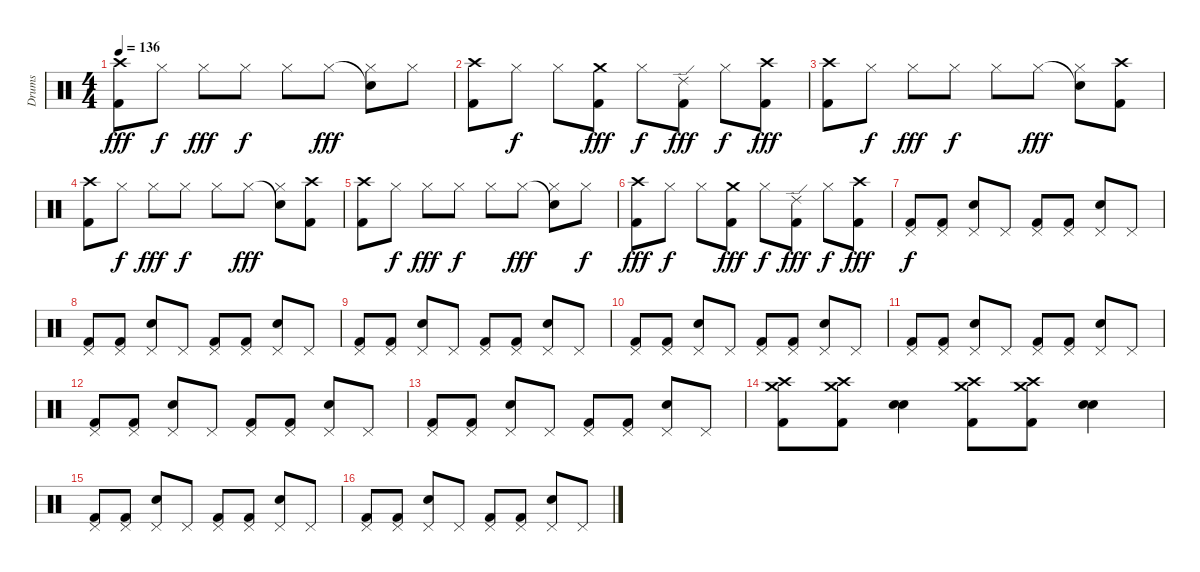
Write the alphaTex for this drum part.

\track ("Drums" "Drums") {instrument percussion}
\staff {score}
\articulation defaults
\ts (4 4)
\tempo 136
\clef neutral
\ks c
("Crash high (hit)" "Kick (hit) 2").8{dy fff} "Hi-Hat (closed)".8{dy f} "Hi-Hat (closed)".8{dy fff} "Hi-Hat (closed)".8{dy f} "Hi-Hat (closed)".8 "Hi-Hat (closed)".8{dy fff} ("Snare (hit)"{t} "Hi-Hat (closed)").8 "Hi-Hat (closed)".8 |
("Crash high (hit)" "Kick (hit) 2").8 "Hi-Hat (closed)".8{dy f} "Hi-Hat (closed)".8 ("Crash medium (hit)" "Kick (hit) 2").8{dy fff} "Hi-Hat (closed)".8{dy f} ("Ride (edge) 2" "Kick (hit) 2").8{dy fff} "Hi-Hat (closed)".8{dy f} ("Crash high (hit)" "Kick (hit) 2").8{dy fff} |
("Crash high (hit)" "Kick (hit) 2").8 "Hi-Hat (closed)".8{dy f} "Hi-Hat (closed)".8{dy fff} "Hi-Hat (closed)".8{dy f} "Hi-Hat (closed)".8 "Hi-Hat (closed)".8{dy fff} ("Snare (hit)"{t} "Hi-Hat (closed)").8 ("Crash high (hit)" "Kick (hit) 2").8 |
("Crash high (hit)" "Kick (hit) 2").8 "Hi-Hat (closed)".8{dy f} "Hi-Hat (closed)".8{dy fff} "Hi-Hat (closed)".8{dy f} "Hi-Hat (closed)".8 "Hi-Hat (closed)".8{dy fff} ("Snare (hit)"{t} "Hi-Hat (closed)").8 ("Crash high (hit)" "Kick (hit) 2").8 |
("Crash high (hit)" "Kick (hit) 2").8 "Hi-Hat (closed)".8{dy f} "Hi-Hat (closed)".8{dy fff} "Hi-Hat (closed)".8{dy f} "Hi-Hat (closed)".8 "Hi-Hat (closed)".8{dy fff} ("Snare (hit)"{t} "Hi-Hat (closed)").8 "Hi-Hat (closed)".8{dy f} |
("Crash high (hit)" "Kick (hit) 2").8{dy fff} "Hi-Hat (closed)".8{dy f} "Hi-Hat (closed)".8 ("Crash medium (hit)" "Kick (hit) 2").8{dy fff} "Hi-Hat (closed)".8{dy f} ("Ride (edge) 2" "Kick (hit) 2").8{dy fff} "Hi-Hat (closed)".8{dy f} ("Crash high (hit)" "Kick (hit) 2").8{dy fff} |
("Pedal Hi-Hat (hit)" "Kick (hit) 2").8{dy f} ("Pedal Hi-Hat (hit)" "Kick (hit) 2").8 ("Pedal Hi-Hat (hit)" "Electric Snare (hit)").8 "Pedal Hi-Hat (hit)".8 ("Pedal Hi-Hat (hit)" "Kick (hit) 2").8 ("Pedal Hi-Hat (hit)" "Kick (hit) 2").8 ("Pedal Hi-Hat (hit)" "Electric Snare (hit)").8 "Pedal Hi-Hat (hit)".8 |
("Pedal Hi-Hat (hit)" "Kick (hit) 2").8 ("Pedal Hi-Hat (hit)" "Kick (hit) 2").8 ("Pedal Hi-Hat (hit)" "Electric Snare (hit)").8 "Pedal Hi-Hat (hit)".8 ("Pedal Hi-Hat (hit)" "Kick (hit) 2").8 ("Pedal Hi-Hat (hit)" "Kick (hit) 2").8 ("Pedal Hi-Hat (hit)" "Electric Snare (hit)").8 "Pedal Hi-Hat (hit)".8 |
("Pedal Hi-Hat (hit)" "Kick (hit) 2").8 ("Pedal Hi-Hat (hit)" "Kick (hit) 2").8 ("Pedal Hi-Hat (hit)" "Electric Snare (hit)").8 "Pedal Hi-Hat (hit)".8 ("Pedal Hi-Hat (hit)" "Kick (hit) 2").8 ("Pedal Hi-Hat (hit)" "Kick (hit) 2").8 ("Pedal Hi-Hat (hit)" "Electric Snare (hit)").8 "Pedal Hi-Hat (hit)".8 |
("Pedal Hi-Hat (hit)" "Kick (hit) 2").8 ("Pedal Hi-Hat (hit)" "Kick (hit) 2").8 ("Pedal Hi-Hat (hit)" "Electric Snare (hit)").8 "Pedal Hi-Hat (hit)".8 ("Pedal Hi-Hat (hit)" "Kick (hit) 2").8 ("Pedal Hi-Hat (hit)" "Kick (hit) 2").8 ("Pedal Hi-Hat (hit)" "Electric Snare (hit)").8 "Pedal Hi-Hat (hit)".8 |
("Pedal Hi-Hat (hit)" "Kick (hit) 2").8 ("Pedal Hi-Hat (hit)" "Kick (hit) 2").8 ("Pedal Hi-Hat (hit)" "Electric Snare (hit)").8 "Pedal Hi-Hat (hit)".8 ("Pedal Hi-Hat (hit)" "Kick (hit) 2").8 ("Pedal Hi-Hat (hit)" "Kick (hit) 2").8 ("Pedal Hi-Hat (hit)" "Electric Snare (hit)").8 "Pedal Hi-Hat (hit)".8 |
("Pedal Hi-Hat (hit)" "Kick (hit) 2").8 ("Pedal Hi-Hat (hit)" "Kick (hit) 2").8 ("Pedal Hi-Hat (hit)" "Electric Snare (hit)").8 "Pedal Hi-Hat (hit)".8 ("Pedal Hi-Hat (hit)" "Kick (hit) 2").8 ("Pedal Hi-Hat (hit)" "Kick (hit) 2").8 ("Pedal Hi-Hat (hit)" "Electric Snare (hit)").8 "Pedal Hi-Hat (hit)".8 |
("Pedal Hi-Hat (hit)" "Kick (hit) 2").8 ("Pedal Hi-Hat (hit)" "Kick (hit) 2").8 ("Pedal Hi-Hat (hit)" "Electric Snare (hit)").8 "Pedal Hi-Hat (hit)".8 ("Pedal Hi-Hat (hit)" "Kick (hit) 2").8 ("Pedal Hi-Hat (hit)" "Kick (hit) 2").8 ("Pedal Hi-Hat (hit)" "Electric Snare (hit)").8 "Pedal Hi-Hat (hit)".8 |
("Crash high (hit)" "Crash medium (hit)" "Kick (hit) 2").8 ("Crash high (hit)" "Crash medium (hit)" "Kick (hit) 2").8 ("Electric Snare (hit)" "Electric Snare (hit)").4 ("Crash high (hit)" "Crash medium (hit)" "Kick (hit) 2").8 ("Crash high (hit)" "Crash medium (hit)" "Kick (hit) 2").8 ("Electric Snare (hit)" "Electric Snare (hit)").4 |
("Pedal Hi-Hat (hit)" "Kick (hit) 2").8 ("Pedal Hi-Hat (hit)" "Kick (hit) 2").8 ("Pedal Hi-Hat (hit)" "Electric Snare (hit)").8 "Pedal Hi-Hat (hit)".8 ("Pedal Hi-Hat (hit)" "Kick (hit) 2").8 ("Pedal Hi-Hat (hit)" "Kick (hit) 2").8 ("Pedal Hi-Hat (hit)" "Electric Snare (hit)").8 "Pedal Hi-Hat (hit)".8 |
("Pedal Hi-Hat (hit)" "Kick (hit) 2").8 ("Pedal Hi-Hat (hit)" "Kick (hit) 2").8 ("Pedal Hi-Hat (hit)" "Electric Snare (hit)").8 "Pedal Hi-Hat (hit)".8 ("Pedal Hi-Hat (hit)" "Kick (hit) 2").8 ("Pedal Hi-Hat (hit)" "Kick (hit) 2").8 ("Pedal Hi-Hat (hit)" "Electric Snare (hit)").8 "Pedal Hi-Hat (hit)".8
